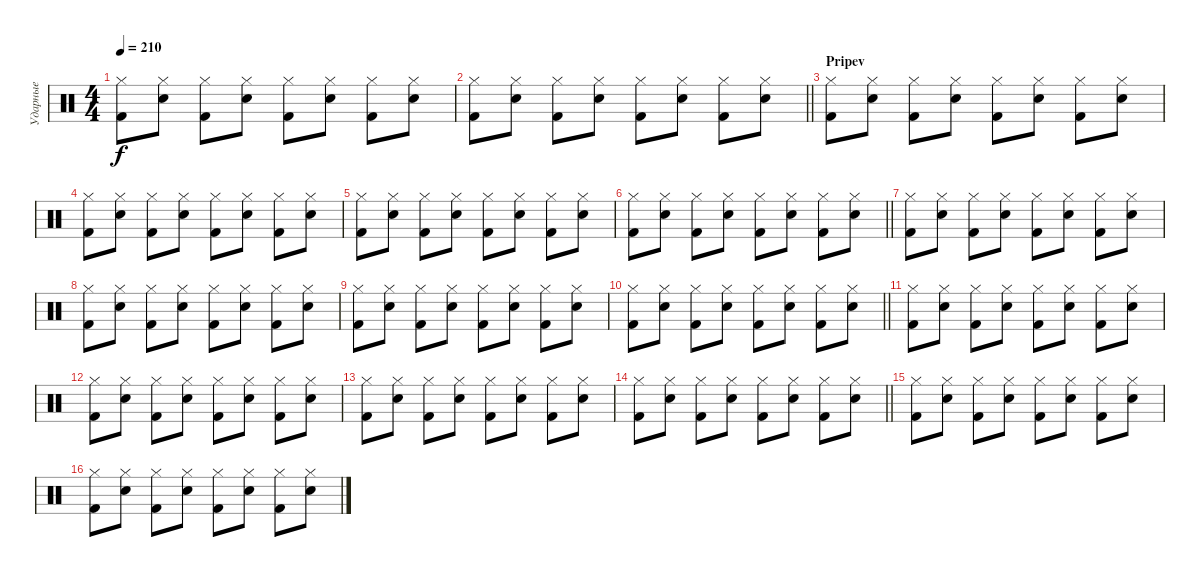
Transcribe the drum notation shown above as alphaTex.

\track ("Ударные" "Ударные") {instrument percussion}
\staff {score}
\articulation defaults
\ts (4 4)
\tempo 210
\clef neutral
\ks c
("Hi-Hat (closed)" "Kick (hit) 2").8{dy f} ("Hi-Hat (closed)" "Snare (hit) 2").8 ("Hi-Hat (closed)" "Kick (hit) 2").8 ("Hi-Hat (closed)" "Snare (hit) 2").8 ("Hi-Hat (closed)" "Kick (hit) 2").8 ("Hi-Hat (closed)" "Snare (hit) 2").8 ("Hi-Hat (closed)" "Kick (hit) 2").8 ("Hi-Hat (closed)" "Snare (hit) 2").8 |
\barLineRight lightlight
("Hi-Hat (closed)" "Kick (hit) 2").8 ("Hi-Hat (closed)" "Snare (hit) 2").8 ("Hi-Hat (closed)" "Kick (hit) 2").8 ("Hi-Hat (closed)" "Snare (hit) 2").8 ("Hi-Hat (closed)" "Kick (hit) 2").8 ("Hi-Hat (closed)" "Snare (hit) 2").8 ("Hi-Hat (closed)" "Kick (hit) 2").8 ("Hi-Hat (closed)" "Snare (hit) 2").8 |
\section ("" "Pripev")
("Hi-Hat (closed)" "Kick (hit) 2").8 ("Hi-Hat (closed)" "Snare (hit) 2").8 ("Hi-Hat (closed)" "Kick (hit) 2").8 ("Hi-Hat (closed)" "Snare (hit) 2").8 ("Hi-Hat (closed)" "Kick (hit) 2").8 ("Hi-Hat (closed)" "Snare (hit) 2").8 ("Hi-Hat (closed)" "Kick (hit) 2").8 ("Hi-Hat (closed)" "Snare (hit) 2").8 |
("Hi-Hat (closed)" "Kick (hit) 2").8 ("Hi-Hat (closed)" "Snare (hit) 2").8 ("Hi-Hat (closed)" "Kick (hit) 2").8 ("Hi-Hat (closed)" "Snare (hit) 2").8 ("Hi-Hat (closed)" "Kick (hit) 2").8 ("Hi-Hat (closed)" "Snare (hit) 2").8 ("Hi-Hat (closed)" "Kick (hit) 2").8 ("Hi-Hat (closed)" "Snare (hit) 2").8 |
("Hi-Hat (closed)" "Kick (hit) 2").8 ("Hi-Hat (closed)" "Snare (hit) 2").8 ("Hi-Hat (closed)" "Kick (hit) 2").8 ("Hi-Hat (closed)" "Snare (hit) 2").8 ("Hi-Hat (closed)" "Kick (hit) 2").8 ("Hi-Hat (closed)" "Snare (hit) 2").8 ("Hi-Hat (closed)" "Kick (hit) 2").8 ("Hi-Hat (closed)" "Snare (hit) 2").8 |
\barLineRight lightlight
("Hi-Hat (closed)" "Kick (hit) 2").8 ("Hi-Hat (closed)" "Snare (hit) 2").8 ("Hi-Hat (closed)" "Kick (hit) 2").8 ("Hi-Hat (closed)" "Snare (hit) 2").8 ("Hi-Hat (closed)" "Kick (hit) 2").8 ("Hi-Hat (closed)" "Snare (hit) 2").8 ("Hi-Hat (closed)" "Kick (hit) 2").8 ("Hi-Hat (closed)" "Snare (hit) 2").8 |
("Hi-Hat (closed)" "Kick (hit) 2").8 ("Hi-Hat (closed)" "Snare (hit) 2").8 ("Hi-Hat (closed)" "Kick (hit) 2").8 ("Hi-Hat (closed)" "Snare (hit) 2").8 ("Hi-Hat (closed)" "Kick (hit) 2").8 ("Hi-Hat (closed)" "Snare (hit) 2").8 ("Hi-Hat (closed)" "Kick (hit) 2").8 ("Hi-Hat (closed)" "Snare (hit) 2").8 |
("Hi-Hat (closed)" "Kick (hit) 2").8 ("Hi-Hat (closed)" "Snare (hit) 2").8 ("Hi-Hat (closed)" "Kick (hit) 2").8 ("Hi-Hat (closed)" "Snare (hit) 2").8 ("Hi-Hat (closed)" "Kick (hit) 2").8 ("Hi-Hat (closed)" "Snare (hit) 2").8 ("Hi-Hat (closed)" "Kick (hit) 2").8 ("Hi-Hat (closed)" "Snare (hit) 2").8 |
("Hi-Hat (closed)" "Kick (hit) 2").8 ("Hi-Hat (closed)" "Snare (hit) 2").8 ("Hi-Hat (closed)" "Kick (hit) 2").8 ("Hi-Hat (closed)" "Snare (hit) 2").8 ("Hi-Hat (closed)" "Kick (hit) 2").8 ("Hi-Hat (closed)" "Snare (hit) 2").8 ("Hi-Hat (closed)" "Kick (hit) 2").8 ("Hi-Hat (closed)" "Snare (hit) 2").8 |
\barLineRight lightlight
("Hi-Hat (closed)" "Kick (hit) 2").8 ("Hi-Hat (closed)" "Snare (hit) 2").8 ("Hi-Hat (closed)" "Kick (hit) 2").8 ("Hi-Hat (closed)" "Snare (hit) 2").8 ("Hi-Hat (closed)" "Kick (hit) 2").8 ("Hi-Hat (closed)" "Snare (hit) 2").8 ("Hi-Hat (closed)" "Kick (hit) 2").8 ("Hi-Hat (closed)" "Snare (hit) 2").8 |
("Hi-Hat (closed)" "Kick (hit) 2").8 ("Hi-Hat (closed)" "Snare (hit) 2").8 ("Hi-Hat (closed)" "Kick (hit) 2").8 ("Hi-Hat (closed)" "Snare (hit) 2").8 ("Hi-Hat (closed)" "Kick (hit) 2").8 ("Hi-Hat (closed)" "Snare (hit) 2").8 ("Hi-Hat (closed)" "Kick (hit) 2").8 ("Hi-Hat (closed)" "Snare (hit) 2").8 |
("Hi-Hat (closed)" "Kick (hit) 2").8 ("Hi-Hat (closed)" "Snare (hit) 2").8 ("Hi-Hat (closed)" "Kick (hit) 2").8 ("Hi-Hat (closed)" "Snare (hit) 2").8 ("Hi-Hat (closed)" "Kick (hit) 2").8 ("Hi-Hat (closed)" "Snare (hit) 2").8 ("Hi-Hat (closed)" "Kick (hit) 2").8 ("Hi-Hat (closed)" "Snare (hit) 2").8 |
("Hi-Hat (closed)" "Kick (hit) 2").8 ("Hi-Hat (closed)" "Snare (hit) 2").8 ("Hi-Hat (closed)" "Kick (hit) 2").8 ("Hi-Hat (closed)" "Snare (hit) 2").8 ("Hi-Hat (closed)" "Kick (hit) 2").8 ("Hi-Hat (closed)" "Snare (hit) 2").8 ("Hi-Hat (closed)" "Kick (hit) 2").8 ("Hi-Hat (closed)" "Snare (hit) 2").8 |
\barLineRight lightlight
("Hi-Hat (closed)" "Kick (hit) 2").8 ("Hi-Hat (closed)" "Snare (hit) 2").8 ("Hi-Hat (closed)" "Kick (hit) 2").8 ("Hi-Hat (closed)" "Snare (hit) 2").8 ("Hi-Hat (closed)" "Kick (hit) 2").8 ("Hi-Hat (closed)" "Snare (hit) 2").8 ("Hi-Hat (closed)" "Kick (hit) 2").8 ("Hi-Hat (closed)" "Snare (hit) 2").8 |
("Hi-Hat (closed)" "Kick (hit) 2").8 ("Hi-Hat (closed)" "Snare (hit) 2").8 ("Hi-Hat (closed)" "Kick (hit) 2").8 ("Hi-Hat (closed)" "Snare (hit) 2").8 ("Hi-Hat (closed)" "Kick (hit) 2").8 ("Hi-Hat (closed)" "Snare (hit) 2").8 ("Hi-Hat (closed)" "Kick (hit) 2").8 ("Hi-Hat (closed)" "Snare (hit) 2").8 |
("Hi-Hat (closed)" "Kick (hit) 2").8 ("Hi-Hat (closed)" "Snare (hit) 2").8 ("Hi-Hat (closed)" "Kick (hit) 2").8 ("Hi-Hat (closed)" "Snare (hit) 2").8 ("Hi-Hat (closed)" "Kick (hit) 2").8 ("Hi-Hat (closed)" "Snare (hit) 2").8 ("Hi-Hat (closed)" "Kick (hit) 2").8 ("Hi-Hat (closed)" "Snare (hit) 2").8
